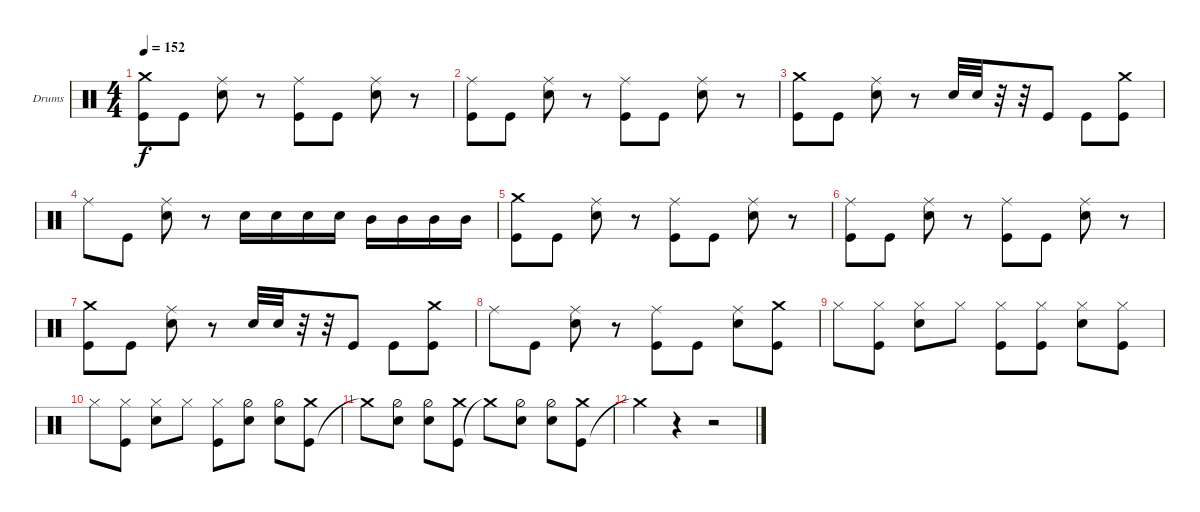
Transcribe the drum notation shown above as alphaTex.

\bracketExtendMode groupsimilarinstruments
\firstSystemTrackNameOrientation horizontal
\otherSystemsTrackNameOrientation horizontal
\track ("Drumkit" "Drums") {instrument percussion}
\staff {score}
\articulation defaults
\ts (4 4)
\tempo 152
\clef neutral
\ks c
("Kick (hit)" "Crash medium (hit)").8{dy f} "Kick (hit)".8 ("Snare (hit) 2" "Ride (middle)").8 r.8 ("Kick (hit)" "Ride (middle)").8 "Kick (hit)".8 ("Snare (hit) 2" "Ride (middle)").8 r.8 |
("Kick (hit)" "Ride (middle)").8 "Kick (hit)".8 ("Snare (hit) 2" "Ride (middle)").8 r.8 ("Kick (hit)" "Ride (middle)").8 "Kick (hit)".8 ("Snare (hit) 2" "Ride (middle)").8 r.8 |
("Kick (hit)" "Crash medium (hit)").8 "Kick (hit)".8 ("Snare (hit) 2" "Ride (middle)").8 r.8 "Snare (hit) 2".32 "Snare (hit) 2".32 r.32 r.32 "Kick (hit)".8 "Kick (hit)".8 ("Kick (hit)" "Crash medium (hit)").8 |
"Ride (middle)".8 "Kick (hit)".8 ("Snare (hit) 2" "Ride (middle)").8 r.8 "Snare (hit) 2".16 "Snare (hit) 2".16 "Snare (hit) 2".16 "Snare (hit) 2".16 "Mid Tom (hit)".16 "Mid Tom (hit)".16 "Mid Tom (hit)".16 "Mid Tom (hit)".16 |
("Kick (hit)" "Crash medium (hit)").8 "Kick (hit)".8 ("Snare (hit) 2" "Ride (middle)").8 r.8 ("Kick (hit)" "Ride (middle)").8 "Kick (hit)".8 ("Snare (hit) 2" "Ride (middle)").8 r.8 |
("Kick (hit)" "Ride (middle)").8 "Kick (hit)".8 ("Snare (hit) 2" "Ride (middle)").8 r.8 ("Kick (hit)" "Ride (middle)").8 "Kick (hit)".8 ("Snare (hit) 2" "Ride (middle)").8 r.8 |
("Kick (hit)" "Crash medium (hit)").8 "Kick (hit)".8 ("Snare (hit) 2" "Ride (middle)").8 r.8 "Snare (hit) 2".32 "Snare (hit) 2".32 r.32 r.32 "Kick (hit)".8 "Kick (hit)".8 ("Kick (hit)" "Crash medium (hit)").8 |
"Ride (middle)".8 "Kick (hit)".8 ("Snare (hit) 2" "Ride (middle)").8 r.8 ("Kick (hit)" "Ride (middle)").8 "Kick (hit)".8 ("Snare (hit) 2" "Ride (middle)").8 ("Kick (hit)" "Crash medium (hit)").8 |
"Hi-Hat (closed)".8 ("Hi-Hat (closed)" "Kick (hit)").8 ("Snare (hit) 2" "Hi-Hat (closed)").8 "Hi-Hat (closed)".8 ("Kick (hit)" "Hi-Hat (closed)").8 ("Kick (hit)" "Hi-Hat (closed)").8 ("Snare (hit) 2" "Hi-Hat (closed)").8 ("Hi-Hat (closed)" "Kick (hit)").8 |
"Hi-Hat (closed)".8 ("Hi-Hat (closed)" "Kick (hit)").8 ("Snare (hit) 2" "Hi-Hat (closed)").8 "Hi-Hat (closed)".8 ("Hi-Hat (closed)" "Kick (hit)").8 ("Snare (hit) 2" "Hi-Hat (half)").8 ("Snare (hit) 2" "Hi-Hat (half)").8 ("Kick (hit)" "Crash medium (hit)").8 |
"Crash medium (hit)"{t}.8 ("Snare (hit) 2" "Hi-Hat (half)").8 ("Snare (hit) 2" "Hi-Hat (half)").8 ("Kick (hit)" "Crash medium (hit)").8 "Crash medium (hit)"{t}.8 ("Snare (hit) 2" "Hi-Hat (half)").8 ("Snare (hit) 2" "Hi-Hat (half)").8 ("Kick (hit)" "Crash medium (hit)").8 |
"Crash medium (hit)"{t}.4 r.4 r.2
